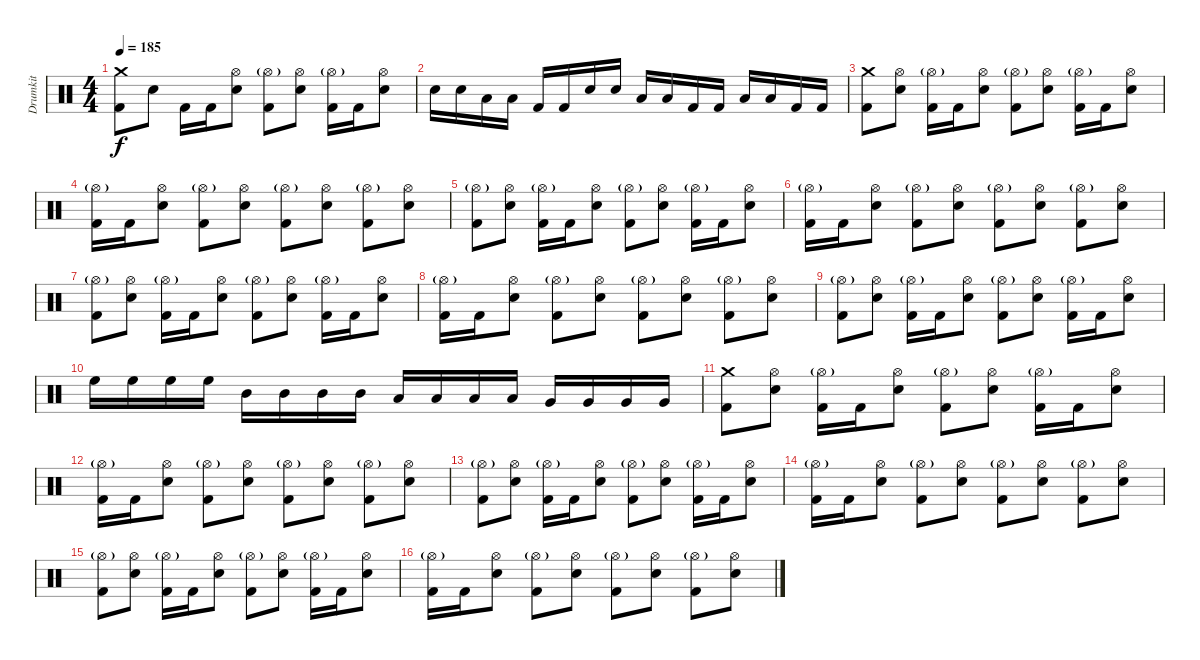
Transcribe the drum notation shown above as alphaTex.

\track ("Drumkit" "Drumkit") {instrument percussion}
\staff {score}
\articulation defaults
\ts (4 4)
\tempo 185
\clef neutral
\ks c
("Crash medium (hit)" "Kick (hit) 2").8{dy f} "Snare (hit) 2".8 "Kick (hit) 2".16 "Kick (hit) 2".16 ("Hi-Hat (open)" "Snare (hit) 2").8 ("Hi-Hat (open)"{g} "Kick (hit) 2").8 ("Hi-Hat (open)" "Snare (hit) 2").8 ("Hi-Hat (open)"{g} "Kick (hit) 2").16 "Kick (hit) 2".16 ("Hi-Hat (open)" "Snare (hit) 2").8 |
"Snare (hit) 2".16 "Snare (hit) 2".16 "Low Tom (hit)".16 "Low Tom (hit)".16 "Kick (hit) 2".16 "Kick (hit) 2".16 "Snare (hit) 2".16 "Snare (hit) 2".16 "Low Tom (hit)".16 "Low Tom (hit)".16 "Kick (hit) 2".16 "Kick (hit) 2".16 "Low Tom (hit)".16 "Low Tom (hit)".16 "Kick (hit) 2".16 "Kick (hit) 2".16 |
("Crash medium (hit)" "Kick (hit) 2").8 ("Hi-Hat (open)" "Snare (hit) 2").8 ("Hi-Hat (open)"{g} "Kick (hit) 2").16 "Kick (hit) 2".16 ("Hi-Hat (open)" "Snare (hit) 2").8 ("Hi-Hat (open)"{g} "Kick (hit) 2").8 ("Hi-Hat (open)" "Snare (hit) 2").8 ("Hi-Hat (open)"{g} "Kick (hit) 2").16 "Kick (hit) 2".16 ("Hi-Hat (open)" "Snare (hit) 2").8 |
("Hi-Hat (open)"{g} "Kick (hit) 2").16 "Kick (hit) 2".16 ("Hi-Hat (open)" "Snare (hit) 2").8 ("Hi-Hat (open)"{g} "Kick (hit) 2").8 ("Hi-Hat (open)" "Snare (hit) 2").8 ("Hi-Hat (open)"{g} "Kick (hit) 2").8 ("Hi-Hat (open)" "Snare (hit) 2").8 ("Hi-Hat (open)"{g} "Kick (hit) 2").8 ("Hi-Hat (open)" "Snare (hit) 2").8 |
("Hi-Hat (open)"{g} "Kick (hit) 2").8 ("Hi-Hat (open)" "Snare (hit) 2").8 ("Hi-Hat (open)"{g} "Kick (hit) 2").16 "Kick (hit) 2".16 ("Hi-Hat (open)" "Snare (hit) 2").8 ("Hi-Hat (open)"{g} "Kick (hit) 2").8 ("Hi-Hat (open)" "Snare (hit) 2").8 ("Hi-Hat (open)"{g} "Kick (hit) 2").16 "Kick (hit) 2".16 ("Hi-Hat (open)" "Snare (hit) 2").8 |
("Hi-Hat (open)"{g} "Kick (hit) 2").16 "Kick (hit) 2".16 ("Hi-Hat (open)" "Snare (hit) 2").8 ("Hi-Hat (open)"{g} "Kick (hit) 2").8 ("Hi-Hat (open)" "Snare (hit) 2").8 ("Hi-Hat (open)"{g} "Kick (hit) 2").8 ("Hi-Hat (open)" "Snare (hit) 2").8 ("Hi-Hat (open)"{g} "Kick (hit) 2").8 ("Hi-Hat (open)" "Snare (hit) 2").8 |
("Hi-Hat (open)"{g} "Kick (hit) 2").8 ("Hi-Hat (open)" "Snare (hit) 2").8 ("Hi-Hat (open)"{g} "Kick (hit) 2").16 "Kick (hit) 2".16 ("Hi-Hat (open)" "Snare (hit) 2").8 ("Hi-Hat (open)"{g} "Kick (hit) 2").8 ("Hi-Hat (open)" "Snare (hit) 2").8 ("Hi-Hat (open)"{g} "Kick (hit) 2").16 "Kick (hit) 2".16 ("Hi-Hat (open)" "Snare (hit) 2").8 |
("Hi-Hat (open)"{g} "Kick (hit) 2").16 "Kick (hit) 2".16 ("Hi-Hat (open)" "Snare (hit) 2").8 ("Hi-Hat (open)"{g} "Kick (hit) 2").8 ("Hi-Hat (open)" "Snare (hit) 2").8 ("Hi-Hat (open)"{g} "Kick (hit) 2").8 ("Hi-Hat (open)" "Snare (hit) 2").8 ("Hi-Hat (open)"{g} "Kick (hit) 2").8 ("Hi-Hat (open)" "Snare (hit) 2").8 |
("Hi-Hat (open)"{g} "Kick (hit) 2").8 ("Hi-Hat (open)" "Snare (hit) 2").8 ("Hi-Hat (open)"{g} "Kick (hit) 2").16 "Kick (hit) 2".16 ("Hi-Hat (open)" "Snare (hit) 2").8 ("Hi-Hat (open)"{g} "Kick (hit) 2").8 ("Hi-Hat (open)" "Snare (hit) 2").8 ("Hi-Hat (open)"{g} "Kick (hit) 2").16 "Kick (hit) 2".16 ("Hi-Hat (open)" "Snare (hit) 2").8 |
"High Floor Tom (hit)".16 "High Floor Tom (hit)".16 "High Floor Tom (hit)".16 "High Floor Tom (hit)".16 "Mid Tom (hit)".16 "Mid Tom (hit)".16 "Mid Tom (hit)".16 "Mid Tom (hit)".16 "Low Tom (hit)".16 "Low Tom (hit)".16 "Low Tom (hit)".16 "Low Tom (hit)".16 "Very Low Tom (hit)".16 "Very Low Tom (hit)".16 "Very Low Tom (hit)".16 "Very Low Tom (hit)".16 |
("Crash medium (hit)" "Kick (hit) 2").8 ("Hi-Hat (open)" "Snare (hit) 2").8 ("Hi-Hat (open)"{g} "Kick (hit) 2").16 "Kick (hit) 2".16 ("Hi-Hat (open)" "Snare (hit) 2").8 ("Hi-Hat (open)"{g} "Kick (hit) 2").8 ("Hi-Hat (open)" "Snare (hit) 2").8 ("Hi-Hat (open)"{g} "Kick (hit) 2").16 "Kick (hit) 2".16 ("Hi-Hat (open)" "Snare (hit) 2").8 |
("Hi-Hat (open)"{g} "Kick (hit) 2").16 "Kick (hit) 2".16 ("Hi-Hat (open)" "Snare (hit) 2").8 ("Hi-Hat (open)"{g} "Kick (hit) 2").8 ("Hi-Hat (open)" "Snare (hit) 2").8 ("Hi-Hat (open)"{g} "Kick (hit) 2").8 ("Hi-Hat (open)" "Snare (hit) 2").8 ("Hi-Hat (open)"{g} "Kick (hit) 2").8 ("Hi-Hat (open)" "Snare (hit) 2").8 |
("Hi-Hat (open)"{g} "Kick (hit) 2").8 ("Hi-Hat (open)" "Snare (hit) 2").8 ("Hi-Hat (open)"{g} "Kick (hit) 2").16 "Kick (hit) 2".16 ("Hi-Hat (open)" "Snare (hit) 2").8 ("Hi-Hat (open)"{g} "Kick (hit) 2").8 ("Hi-Hat (open)" "Snare (hit) 2").8 ("Hi-Hat (open)"{g} "Kick (hit) 2").16 "Kick (hit) 2".16 ("Hi-Hat (open)" "Snare (hit) 2").8 |
("Hi-Hat (open)"{g} "Kick (hit) 2").16 "Kick (hit) 2".16 ("Hi-Hat (open)" "Snare (hit) 2").8 ("Hi-Hat (open)"{g} "Kick (hit) 2").8 ("Hi-Hat (open)" "Snare (hit) 2").8 ("Hi-Hat (open)"{g} "Kick (hit) 2").8 ("Hi-Hat (open)" "Snare (hit) 2").8 ("Hi-Hat (open)"{g} "Kick (hit) 2").8 ("Hi-Hat (open)" "Snare (hit) 2").8 |
("Hi-Hat (open)"{g} "Kick (hit) 2").8 ("Hi-Hat (open)" "Snare (hit) 2").8 ("Hi-Hat (open)"{g} "Kick (hit) 2").16 "Kick (hit) 2".16 ("Hi-Hat (open)" "Snare (hit) 2").8 ("Hi-Hat (open)"{g} "Kick (hit) 2").8 ("Hi-Hat (open)" "Snare (hit) 2").8 ("Hi-Hat (open)"{g} "Kick (hit) 2").16 "Kick (hit) 2".16 ("Hi-Hat (open)" "Snare (hit) 2").8 |
("Hi-Hat (open)"{g} "Kick (hit) 2").16 "Kick (hit) 2".16 ("Hi-Hat (open)" "Snare (hit) 2").8 ("Hi-Hat (open)"{g} "Kick (hit) 2").8 ("Hi-Hat (open)" "Snare (hit) 2").8 ("Hi-Hat (open)"{g} "Kick (hit) 2").8 ("Hi-Hat (open)" "Snare (hit) 2").8 ("Hi-Hat (open)"{g} "Kick (hit) 2").8 ("Hi-Hat (open)" "Snare (hit) 2").8
